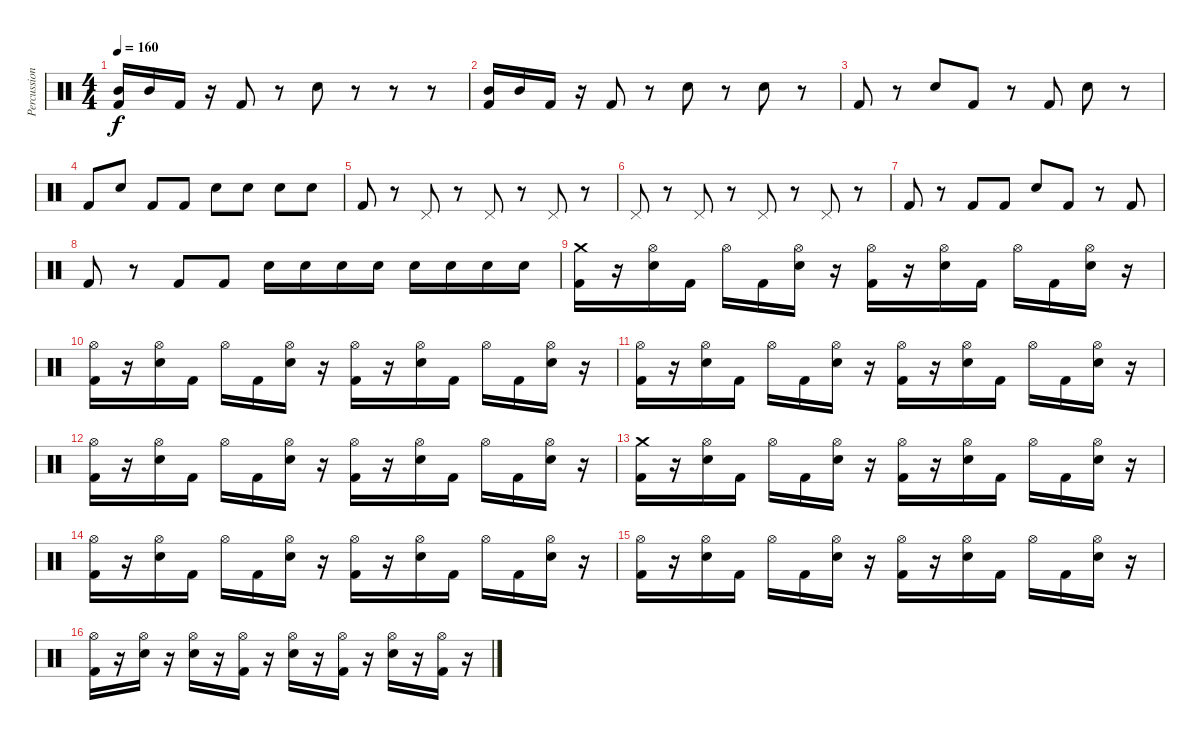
\track ("Percussion" "Percussion") {instrument percussion}
\staff {score}
\articulation defaults
\ts (4 4)
\tempo 160
\clef neutral
\ks c
("Kick (hit) 2" "Mid Tom (hit)").16{dy f} "Mid Tom (hit)".16 "Kick (hit) 2".16 r.16 "Kick (hit) 2".8 r.8 "Snare (hit) 2".8 r.8 r.8 r.8 |
("Kick (hit) 2" "Mid Tom (hit)").16 "Mid Tom (hit)".16 "Kick (hit) 2".16 r.16 "Kick (hit) 2".8 r.8 "Snare (hit) 2".8 r.8 "Snare (hit) 2".8 r.8 |
"Kick (hit) 2".8 r.8 "Snare (hit) 2".8 "Kick (hit) 2".8 r.8 "Kick (hit) 2".8 "Snare (hit) 2".8 r.8 |
"Kick (hit) 2".8 "Snare (hit) 2".8 "Kick (hit) 2".8 "Kick (hit) 2".8 "Snare (hit) 2".8 "Snare (hit) 2".8 "Snare (hit) 2".8 "Snare (hit) 2".8 |
"Kick (hit) 2".8 r.8 "Pedal Hi-Hat (hit)".8 r.8 "Pedal Hi-Hat (hit)".8 r.8 "Pedal Hi-Hat (hit)".8 r.8 |
"Pedal Hi-Hat (hit)".8 r.8 "Pedal Hi-Hat (hit)".8 r.8 "Pedal Hi-Hat (hit)".8 r.8 "Pedal Hi-Hat (hit)".8 r.8 |
"Kick (hit) 2".8 r.8 "Kick (hit) 2".8 "Kick (hit) 2".8 "Snare (hit) 2".8 "Kick (hit) 2".8 r.8 "Kick (hit) 2".8 |
"Kick (hit) 2".8 r.8 "Kick (hit) 2".8 "Kick (hit) 2".8 "Snare (hit) 2".16 "Snare (hit) 2".16 "Snare (hit) 2".16 "Snare (hit) 2".16 "Snare (hit) 2".16 "Snare (hit) 2".16 "Snare (hit) 2".16 "Snare (hit) 2".16 |
("Crash medium (hit)" "Kick (hit) 2").16 r.16 ("Hi-Hat (open)" "Snare (hit) 2").16 "Kick (hit) 2".16 "Hi-Hat (open)".16 "Kick (hit) 2".16 ("Hi-Hat (open)" "Snare (hit) 2").16 r.16 ("Hi-Hat (open)" "Kick (hit) 2").16 r.16 ("Hi-Hat (open)" "Snare (hit) 2").16 "Kick (hit) 2".16 "Hi-Hat (open)".16 "Kick (hit) 2".16 ("Hi-Hat (open)" "Snare (hit) 2").16 r.16 |
("Hi-Hat (open)" "Kick (hit) 2").16 r.16 ("Hi-Hat (open)" "Snare (hit) 2").16 "Kick (hit) 2".16 "Hi-Hat (open)".16 "Kick (hit) 2".16 ("Hi-Hat (open)" "Snare (hit) 2").16 r.16 ("Hi-Hat (open)" "Kick (hit) 2").16 r.16 ("Hi-Hat (open)" "Snare (hit) 2").16 "Kick (hit) 2".16 "Hi-Hat (open)".16 "Kick (hit) 2".16 ("Hi-Hat (open)" "Snare (hit) 2").16 r.16 |
("Hi-Hat (open)" "Kick (hit) 2").16 r.16 ("Hi-Hat (open)" "Snare (hit) 2").16 "Kick (hit) 2".16 "Hi-Hat (open)".16 "Kick (hit) 2".16 ("Hi-Hat (open)" "Snare (hit) 2").16 r.16 ("Hi-Hat (open)" "Kick (hit) 2").16 r.16 ("Hi-Hat (open)" "Snare (hit) 2").16 "Kick (hit) 2".16 "Hi-Hat (open)".16 "Kick (hit) 2".16 ("Hi-Hat (open)" "Snare (hit) 2").16 r.16 |
("Hi-Hat (open)" "Kick (hit) 2").16 r.16 ("Hi-Hat (open)" "Snare (hit) 2").16 "Kick (hit) 2".16 "Hi-Hat (open)".16 "Kick (hit) 2".16 ("Hi-Hat (open)" "Snare (hit) 2").16 r.16 ("Hi-Hat (open)" "Kick (hit) 2").16 r.16 ("Hi-Hat (open)" "Snare (hit) 2").16 "Kick (hit) 2".16 "Hi-Hat (open)".16 "Kick (hit) 2".16 ("Hi-Hat (open)" "Snare (hit) 2").16 r.16 |
("Crash medium (hit)" "Kick (hit) 2").16 r.16 ("Hi-Hat (open)" "Snare (hit) 2").16 "Kick (hit) 2".16 "Hi-Hat (open)".16 "Kick (hit) 2".16 ("Hi-Hat (open)" "Snare (hit) 2").16 r.16 ("Hi-Hat (open)" "Kick (hit) 2").16 r.16 ("Hi-Hat (open)" "Snare (hit) 2").16 "Kick (hit) 2".16 "Hi-Hat (open)".16 "Kick (hit) 2".16 ("Hi-Hat (open)" "Snare (hit) 2").16 r.16 |
("Hi-Hat (open)" "Kick (hit) 2").16 r.16 ("Hi-Hat (open)" "Snare (hit) 2").16 "Kick (hit) 2".16 "Hi-Hat (open)".16 "Kick (hit) 2".16 ("Hi-Hat (open)" "Snare (hit) 2").16 r.16 ("Hi-Hat (open)" "Kick (hit) 2").16 r.16 ("Hi-Hat (open)" "Snare (hit) 2").16 "Kick (hit) 2".16 "Hi-Hat (open)".16 "Kick (hit) 2".16 ("Hi-Hat (open)" "Snare (hit) 2").16 r.16 |
("Hi-Hat (open)" "Kick (hit) 2").16 r.16 ("Hi-Hat (open)" "Snare (hit) 2").16 "Kick (hit) 2".16 "Hi-Hat (open)".16 "Kick (hit) 2".16 ("Hi-Hat (open)" "Snare (hit) 2").16 r.16 ("Hi-Hat (open)" "Kick (hit) 2").16 r.16 ("Hi-Hat (open)" "Snare (hit) 2").16 "Kick (hit) 2".16 "Hi-Hat (open)".16 "Kick (hit) 2".16 ("Hi-Hat (open)" "Snare (hit) 2").16 r.16 |
("Hi-Hat (open)" "Kick (hit) 2").16 r.16 ("Hi-Hat (open)" "Snare (hit) 2").16 r.16 ("Hi-Hat (open)" "Snare (hit) 2").16 r.16 ("Hi-Hat (open)" "Kick (hit) 2").16 r.16 ("Hi-Hat (open)" "Snare (hit) 2").16 r.16 ("Hi-Hat (open)" "Kick (hit) 2").16 r.16 ("Hi-Hat (open)" "Snare (hit) 2").16 r.16 ("Hi-Hat (open)" "Kick (hit) 2").16 r.16
